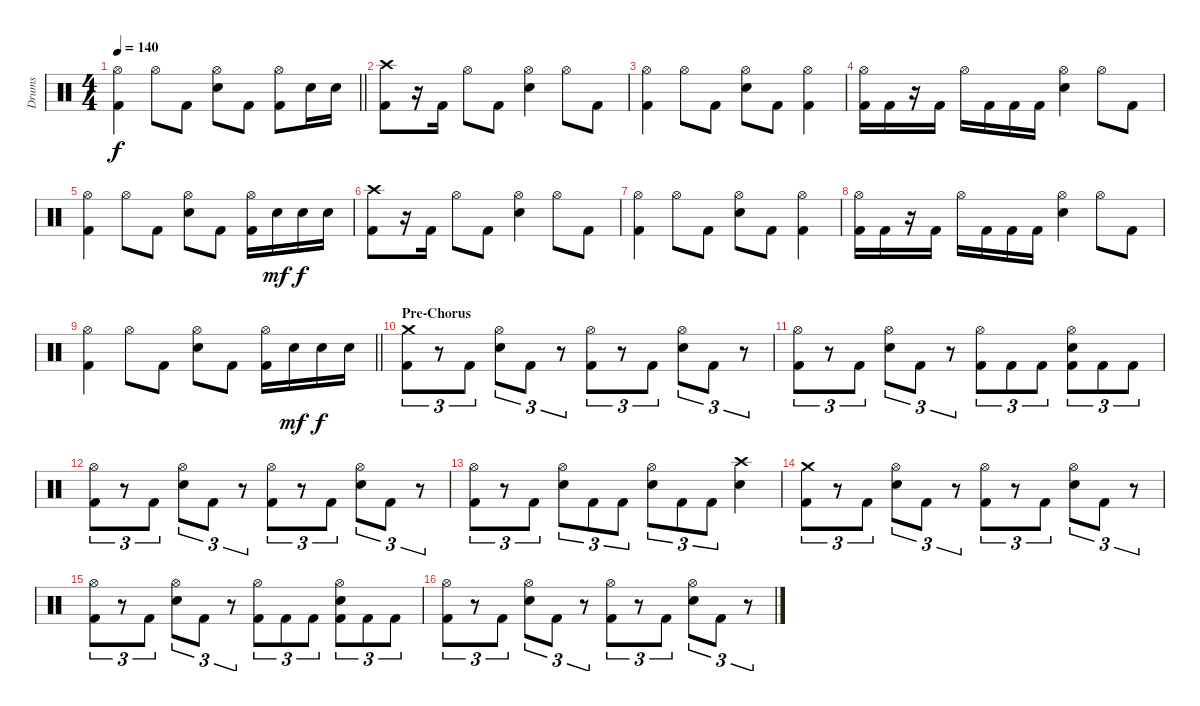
\track ("Drums" "Drums") {instrument percussion}
\staff {score}
\articulation defaults
\ts (4 4)
\tempo 140
\clef neutral
\barLineRight lightlight
\ks c
("Hi-Hat (open)" "Kick (hit) 2").4{dy f} "Hi-Hat (open)".8 "Kick (hit) 2".8 ("Hi-Hat (open)" "Electric Snare (hit)").8 "Kick (hit) 2".8 ("Hi-Hat (open)" "Kick (hit) 2").8 "Electric Snare (hit)".16 "Electric Snare (hit)".16 |
\section ("" "")
("Crash high (hit)" "Kick (hit) 2").8 r.16 "Kick (hit) 2".16 "Hi-Hat (open)".8 "Kick (hit) 2".8 ("Hi-Hat (open)" "Electric Snare (hit)").4 "Hi-Hat (open)".8 "Kick (hit) 2".8 |
("Hi-Hat (open)" "Kick (hit) 2").4 "Hi-Hat (open)".8 "Kick (hit) 2".8 ("Hi-Hat (open)" "Electric Snare (hit)").8 "Kick (hit) 2".8 ("Hi-Hat (open)" "Kick (hit) 2").4 |
("Hi-Hat (open)" "Kick (hit) 2").16 "Kick (hit) 2".16 r.16 "Kick (hit) 2".16 "Hi-Hat (open)".16 "Kick (hit) 2".16 "Kick (hit) 2".16 "Kick (hit) 2".16 ("Hi-Hat (open)" "Electric Snare (hit)").4 "Hi-Hat (open)".8 "Kick (hit) 2".8 |
("Hi-Hat (open)" "Kick (hit) 2").4 "Hi-Hat (open)".8 "Kick (hit) 2".8 ("Hi-Hat (open)" "Electric Snare (hit)").8 "Kick (hit) 2".8 ("Hi-Hat (open)" "Kick (hit) 2").16 "Electric Snare (hit)".16{dy mf} "Electric Snare (hit)".16{dy f} "Electric Snare (hit)".16 |
("Crash high (hit)" "Kick (hit) 2").8 r.16 "Kick (hit) 2".16 "Hi-Hat (open)".8 "Kick (hit) 2".8 ("Hi-Hat (open)" "Electric Snare (hit)").4 "Hi-Hat (open)".8 "Kick (hit) 2".8 |
("Hi-Hat (open)" "Kick (hit) 2").4 "Hi-Hat (open)".8 "Kick (hit) 2".8 ("Hi-Hat (open)" "Electric Snare (hit)").8 "Kick (hit) 2".8 ("Hi-Hat (open)" "Kick (hit) 2").4 |
("Hi-Hat (open)" "Kick (hit) 2").16 "Kick (hit) 2".16 r.16 "Kick (hit) 2".16 "Hi-Hat (open)".16 "Kick (hit) 2".16 "Kick (hit) 2".16 "Kick (hit) 2".16 ("Hi-Hat (open)" "Electric Snare (hit)").4 "Hi-Hat (open)".8 "Kick (hit) 2".8 |
\barLineRight lightlight
("Hi-Hat (open)" "Kick (hit) 2").4 "Hi-Hat (open)".8 "Kick (hit) 2".8 ("Hi-Hat (open)" "Electric Snare (hit)").8 "Kick (hit) 2".8 ("Hi-Hat (open)" "Kick (hit) 2").16 "Electric Snare (hit)".16{dy mf} "Electric Snare (hit)".16{dy f} "Electric Snare (hit)".16 |
\section ("" "Pre-Chorus")
("Crash medium (hit)" "Kick (hit) 2").8{tu (3 2)} r.8{tu (3 2)} "Kick (hit) 2".8{tu (3 2)} ("Hi-Hat (open)" "Electric Snare (hit)").8{tu (3 2)} "Kick (hit) 2".8{tu (3 2)} r.8{tu (3 2)} ("Hi-Hat (open)" "Kick (hit) 2").8{tu (3 2)} r.8{tu (3 2)} "Kick (hit) 2".8{tu (3 2)} ("Hi-Hat (open)" "Electric Snare (hit)").8{tu (3 2)} "Kick (hit) 2".8{tu (3 2)} r.8{tu (3 2)} |
("Hi-Hat (open)" "Kick (hit) 2").8{tu (3 2)} r.8{tu (3 2)} "Kick (hit) 2".8{tu (3 2)} ("Hi-Hat (open)" "Electric Snare (hit)").8{tu (3 2)} "Kick (hit) 2".8{tu (3 2)} r.8{tu (3 2)} ("Hi-Hat (open)" "Kick (hit) 2").8{tu (3 2)} "Kick (hit) 2".8{tu (3 2)} "Kick (hit) 2".8{tu (3 2)} ("Hi-Hat (open)" "Electric Snare (hit)" "Kick (hit) 2").8{tu (3 2)} "Kick (hit) 2".8{tu (3 2)} "Kick (hit) 2".8{tu (3 2)} |
("Hi-Hat (open)" "Kick (hit) 2").8{tu (3 2)} r.8{tu (3 2)} "Kick (hit) 2".8{tu (3 2)} ("Hi-Hat (open)" "Electric Snare (hit)").8{tu (3 2)} "Kick (hit) 2".8{tu (3 2)} r.8{tu (3 2)} ("Hi-Hat (open)" "Kick (hit) 2").8{tu (3 2)} r.8{tu (3 2)} "Kick (hit) 2".8{tu (3 2)} ("Hi-Hat (open)" "Electric Snare (hit)").8{tu (3 2)} "Kick (hit) 2".8{tu (3 2)} r.8{tu (3 2)} |
("Hi-Hat (open)" "Kick (hit) 2").8{tu (3 2)} r.8{tu (3 2)} "Kick (hit) 2".8{tu (3 2)} ("Hi-Hat (open)" "Electric Snare (hit)").8{tu (3 2)} "Kick (hit) 2".8{tu (3 2)} "Kick (hit) 2".8{tu (3 2)} ("Hi-Hat (open)" "Electric Snare (hit)").8{tu (3 2)} "Kick (hit) 2".8{tu (3 2)} "Kick (hit) 2".8{tu (3 2)} ("Crash high (hit)" "Electric Snare (hit)").4 |
("Crash medium (hit)" "Kick (hit) 2").8{tu (3 2)} r.8{tu (3 2)} "Kick (hit) 2".8{tu (3 2)} ("Hi-Hat (open)" "Electric Snare (hit)").8{tu (3 2)} "Kick (hit) 2".8{tu (3 2)} r.8{tu (3 2)} ("Hi-Hat (open)" "Kick (hit) 2").8{tu (3 2)} r.8{tu (3 2)} "Kick (hit) 2".8{tu (3 2)} ("Hi-Hat (open)" "Electric Snare (hit)").8{tu (3 2)} "Kick (hit) 2".8{tu (3 2)} r.8{tu (3 2)} |
("Hi-Hat (open)" "Kick (hit) 2").8{tu (3 2)} r.8{tu (3 2)} "Kick (hit) 2".8{tu (3 2)} ("Hi-Hat (open)" "Electric Snare (hit)").8{tu (3 2)} "Kick (hit) 2".8{tu (3 2)} r.8{tu (3 2)} ("Hi-Hat (open)" "Kick (hit) 2").8{tu (3 2)} "Kick (hit) 2".8{tu (3 2)} "Kick (hit) 2".8{tu (3 2)} ("Hi-Hat (open)" "Electric Snare (hit)" "Kick (hit) 2").8{tu (3 2)} "Kick (hit) 2".8{tu (3 2)} "Kick (hit) 2".8{tu (3 2)} |
("Hi-Hat (open)" "Kick (hit) 2").8{tu (3 2)} r.8{tu (3 2)} "Kick (hit) 2".8{tu (3 2)} ("Hi-Hat (open)" "Electric Snare (hit)").8{tu (3 2)} "Kick (hit) 2".8{tu (3 2)} r.8{tu (3 2)} ("Hi-Hat (open)" "Kick (hit) 2").8{tu (3 2)} r.8{tu (3 2)} "Kick (hit) 2".8{tu (3 2)} ("Hi-Hat (open)" "Electric Snare (hit)").8{tu (3 2)} "Kick (hit) 2".8{tu (3 2)} r.8{tu (3 2)}
